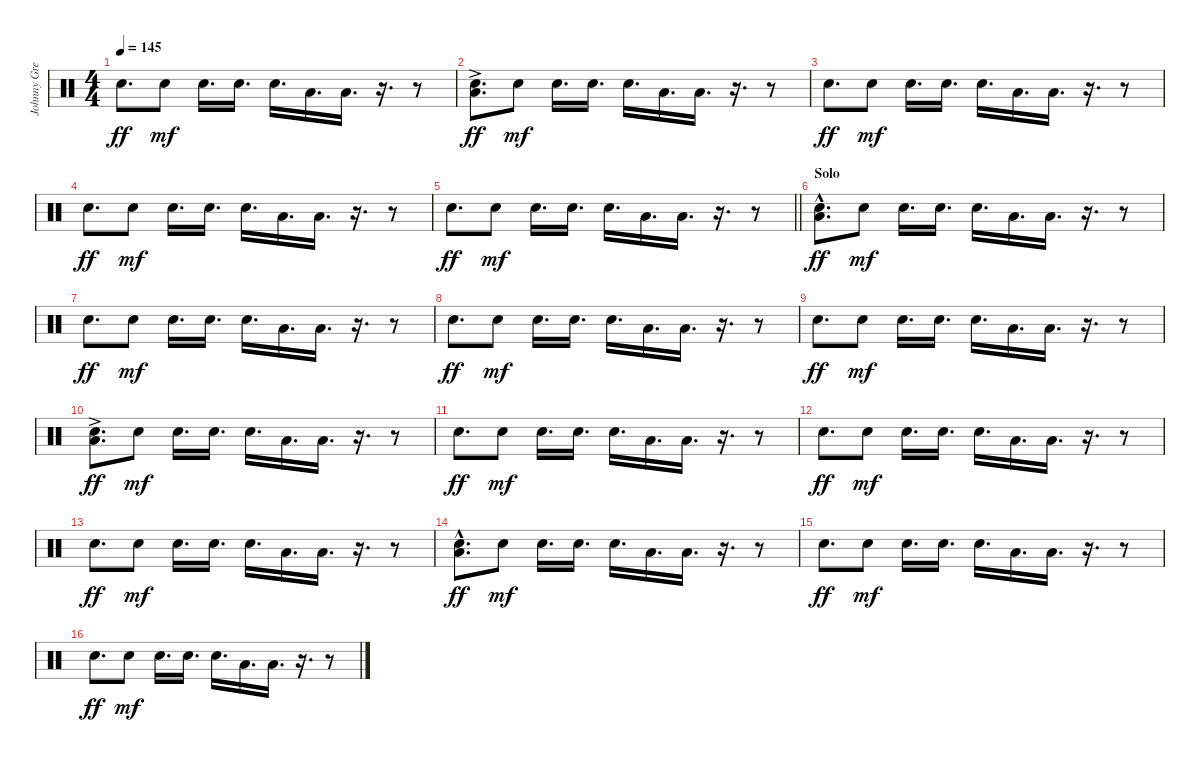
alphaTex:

\track ("Johnny Greenwood" "Johnny Gre") {instrument percussion}
\staff {score}
\articulation defaults
\ts (4 4)
\tempo 145
\clef neutral
\ks c "Snare (hit) 2".8{d dy ff} "Snare (hit) 2".8{dy mf} "Snare (hit) 2".16{d} "Snare (hit) 2".16{d} "Snare (hit) 2".16{d} "Low Floor Tom (hit)".16{d} "Low Floor Tom (hit)".16{d}
r.16{d} r.8 |
("Snare (hit) 2" "Low Floor Tom (hit)"{ac}).8{d dy ff} "Snare (hit) 2".8{dy mf} "Snare (hit) 2".16{d} "Snare (hit) 2".16{d} "Snare (hit) 2".16{d} "Low Floor Tom (hit)".16{d} "Low Floor Tom (hit)".16{d} r.16{d} r.8 |
"Snare (hit) 2".8{d dy ff} "Snare (hit) 2".8{dy mf} "Snare (hit) 2".16{d} "Snare (hit) 2".16{d} "Snare (hit) 2".16{d} "Low Floor Tom (hit)".16{d} "Low Floor Tom (hit)".16{d} r.16{d} r.8 |
"Snare (hit) 2".8{d dy ff} "Snare (hit) 2".8{dy mf} "Snare (hit) 2".16{d} "Snare (hit) 2".16{d} "Snare (hit) 2".16{d} "Low Floor Tom (hit)".16{d} "Low Floor Tom (hit)".16{d} r.16{d} r.8 |
\barLineRight lightlight "Snare (hit) 2".8{d dy ff} "Snare (hit) 2".8{dy mf} "Snare (hit) 2".16{d} "Snare (hit) 2".16{d} "Snare (hit) 2".16{d} "Low Floor Tom (hit)".16{d} "Low Floor Tom (hit)".16{d}
r.16{d} r.8 |
\section ("" "Solo")
("Snare (hit) 2" "Low Floor Tom (hit)"{hac}).8{d dy ff} "Snare (hit) 2".8{dy mf} "Snare (hit) 2".16{d} "Snare (hit) 2".16{d} "Snare (hit) 2".16{d} "Low Floor Tom (hit)".16{d} "Low Floor Tom (hit)".16{d} r.16{d} r.8 |
"Snare (hit) 2".8{d dy ff} "Snare (hit) 2".8{dy mf} "Snare (hit) 2".16{d} "Snare (hit) 2".16{d} "Snare (hit) 2".16{d} "Low Floor Tom (hit)".16{d} "Low Floor Tom (hit)".16{d} r.16{d} r.8 |
"Snare (hit) 2".8{d dy ff} "Snare (hit) 2".8{dy mf} "Snare (hit) 2".16{d} "Snare (hit) 2".16{d} "Snare (hit) 2".16{d} "Low Floor Tom (hit)".16{d} "Low Floor Tom (hit)".16{d} r.16{d} r.8 |
"Snare (hit) 2".8{d dy ff} "Snare (hit) 2".8{dy mf} "Snare (hit) 2".16{d} "Snare (hit) 2".16{d} "Snare (hit) 2".16{d} "Low Floor Tom (hit)".16{d} "Low Floor Tom (hit)".16{d} r.16{d} r.8 |
("Snare (hit) 2" "Low Floor Tom (hit)"{ac}).8{d dy ff} "Snare (hit) 2".8{dy mf} "Snare (hit) 2".16{d} "Snare (hit) 2".16{d} "Snare (hit) 2".16{d} "Low Floor Tom (hit)".16{d} "Low Floor Tom (hit)".16{d} r.16{d} r.8 |
"Snare (hit) 2".8{d dy ff} "Snare (hit) 2".8{dy mf} "Snare (hit) 2".16{d} "Snare (hit) 2".16{d} "Snare (hit) 2".16{d} "Low Floor Tom (hit)".16{d} "Low Floor Tom (hit)".16{d} r.16{d} r.8 |
"Snare (hit) 2".8{d dy ff} "Snare (hit) 2".8{dy mf} "Snare (hit) 2".16{d} "Snare (hit) 2".16{d} "Snare (hit) 2".16{d} "Low Floor Tom (hit)".16{d} "Low Floor Tom (hit)".16{d} r.16{d} r.8 |
"Snare (hit) 2".8{d dy ff} "Snare (hit) 2".8{dy mf} "Snare (hit) 2".16{d} "Snare (hit) 2".16{d} "Snare (hit) 2".16{d} "Low Floor Tom (hit)".16{d} "Low Floor Tom (hit)".16{d} r.16{d} r.8 |
("Snare (hit) 2" "Low Floor Tom (hit)"{hac}).8{d dy ff} "Snare (hit) 2".8{dy mf} "Snare (hit) 2".16{d} "Snare (hit) 2".16{d} "Snare (hit) 2".16{d} "Low Floor Tom (hit)".16{d} "Low Floor Tom (hit)".16{d} r.16{d} r.8 |
"Snare (hit) 2".8{d dy ff} "Snare (hit) 2".8{dy mf} "Snare (hit) 2".16{d} "Snare (hit) 2".16{d} "Snare (hit) 2".16{d} "Low Floor Tom (hit)".16{d} "Low Floor Tom (hit)".16{d} r.16{d} r.8 |
"Snare (hit) 2".8{d dy ff} "Snare (hit) 2".8{dy mf} "Snare (hit) 2".16{d} "Snare (hit) 2".16{d} "Snare (hit) 2".16{d} "Low Floor Tom (hit)".16{d} "Low Floor Tom (hit)".16{d} r.16{d} r.8
